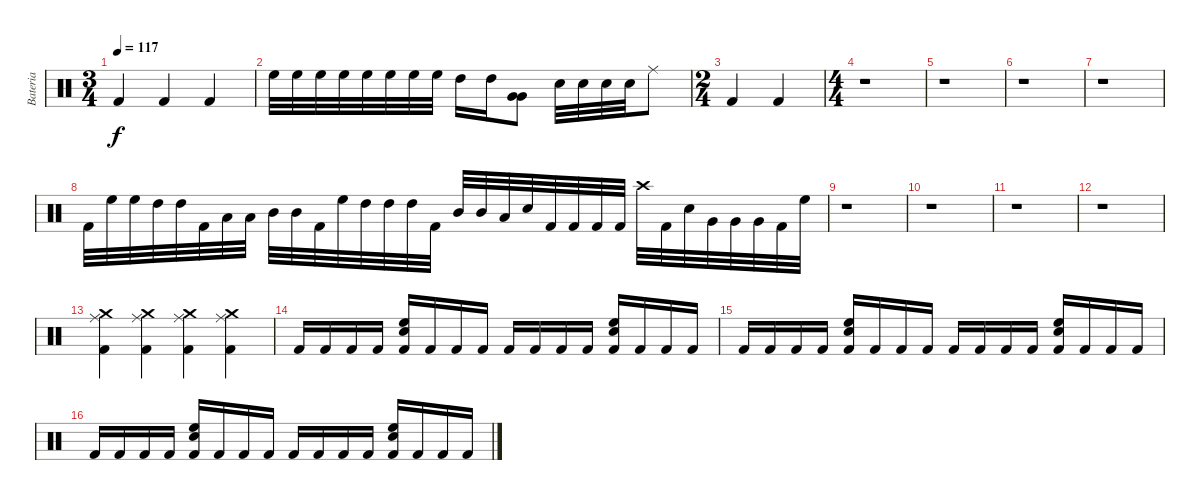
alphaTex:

\track ("Bateria" "Bateria") {instrument percussion}
\staff {score}
\articulation defaults
\ts (3 4)
\tempo 117
\clef neutral
\ks c "Kick (hit) 2".4{dy f} "Kick (hit) 2".4 "Kick (hit) 2".4
|
"High Floor Tom (hit)".32 "High Floor Tom (hit)".32 "High Floor Tom (hit)".32 "High Floor Tom (hit)".32 "High Floor Tom (hit)".32 "High Floor Tom (hit)".32 "High Floor Tom (hit)".32 "High Floor Tom (hit)".32 "High Tom (hit)".16 "High Tom (hit)".16 ("Very Low Tom (hit)" "Very Low Tom (hit)").8 "Snare (hit) 2".32 "Snare (hit) 2".32 "Snare (hit) 2".32 "Snare (hit) 2".32 "Ride (middle)".8 |
\ts (2 4)
"Kick (hit) 2".4 "Kick (hit) 2".4 |
\ts (4 4)
r.1 |
r.1 |
r.1 |
r.1 |
"Kick (hit) 2".32 "High Floor Tom (hit)".32 "High Floor Tom (hit)".32 "High Tom (hit)".32 "High Tom (hit)".32 "Kick (hit) 2".32 "Low Tom (hit)".32 "Low Tom (hit)".32 "Mid Tom (hit)".32 "Mid Tom (hit)".32 "Kick (hit) 2".32 "High Floor Tom (hit)".32 "High Tom (hit)".32 "High Tom (hit)".32 "High Tom (hit)".32 "Kick (hit) 2".32 "Mid Tom (hit)".32 "Mid Tom (hit)".32 "Low Tom (hit)".32 "Snare (hit) 2".32 "Kick (hit) 2".32 "Kick (hit) 2".32 "Kick (hit) 2".32 "Kick (hit) 2".32 "Crash high (hit)".32 "Kick (hit) 2".32 "Snare (hit) 2".32 "Very Low Tom (hit)".32 "Very Low Tom (hit)".32 "Very Low Tom (hit)".32 "Kick (hit) 2".32 "High Floor Tom (hit)".32 |
r.1 |
r.1 |
r.1 |
r.1 |
("Crash medium (hit)" "Ride (middle)" "Kick (hit) 2").4 ("Crash medium (hit)" "Ride (middle)" "Kick (hit) 2").4 ("Crash medium (hit)" "Ride (middle)" "Kick (hit) 2").4 ("Crash medium (hit)" "Ride (middle)" "Kick (hit) 2").4 |
"Kick (hit) 2".16 "Kick (hit) 2".16 "Kick (hit) 2".16 "Kick (hit) 2".16 ("Snare (hit) 2" "High Floor Tom (hit)" "Kick (hit) 2").16 "Kick (hit) 2".16 "Kick (hit) 2".16 "Kick (hit) 2".16 "Kick (hit) 2".16 "Kick (hit) 2".16 "Kick (hit) 2".16 "Kick (hit) 2".16 ("Snare (hit) 2" "High Floor Tom (hit)" "Kick (hit) 2").16 "Kick (hit) 2".16 "Kick (hit) 2".16 "Kick (hit) 2".16 |
"Kick (hit) 2".16 "Kick (hit) 2".16 "Kick (hit) 2".16 "Kick (hit) 2".16 ("Snare (hit) 2" "High Floor Tom (hit)" "Kick (hit) 2").16 "Kick (hit) 2".16 "Kick (hit) 2".16 "Kick (hit) 2".16 "Kick (hit) 2".16 "Kick (hit) 2".16 "Kick (hit) 2".16 "Kick (hit) 2".16 ("Snare (hit) 2" "High Floor Tom (hit)" "Kick (hit) 2").16 "Kick (hit) 2".16 "Kick (hit) 2".16 "Kick (hit) 2".16 |
"Kick (hit) 2".16 "Kick (hit) 2".16 "Kick (hit) 2".16 "Kick (hit) 2".16 ("Snare (hit) 2" "High Floor Tom (hit)" "Kick (hit) 2").16 "Kick (hit) 2".16 "Kick (hit) 2".16 "Kick (hit) 2".16 "Kick (hit) 2".16 "Kick (hit) 2".16 "Kick (hit) 2".16 "Kick (hit) 2".16 ("Snare (hit) 2" "High Floor Tom (hit)" "Kick (hit) 2").16 "Kick (hit) 2".16 "Kick (hit) 2".16 "Kick (hit) 2".16
